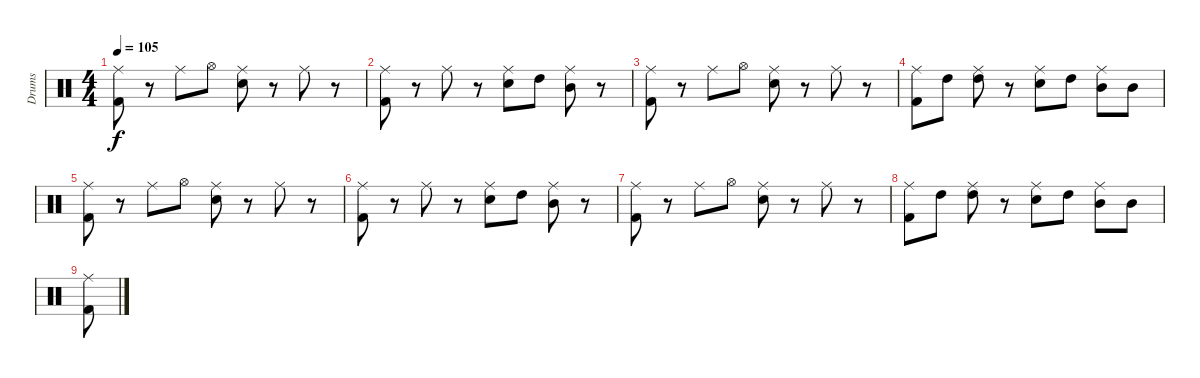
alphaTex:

\track ("Drums" "Drums") {instrument percussion}
\staff {score}
\articulation defaults
\ts (4 4)
\tempo 105
\clef neutral
\ks c
("Ride (middle)" "Kick (hit) 2").8{dy f} r.8 "Ride (middle)".8 "Hi-Hat (open)".8 ("Ride (middle)" "Snare (hit) 2").8 r.8 "Ride (middle)".8 r.8 |
("Ride (middle)" "Kick (hit) 2").8 r.8 "Ride (middle)".8 r.8 ("Ride (middle)" "Snare (hit) 2").8 "High Tom (hit)".8 ("Ride (middle)" "Mid Tom (hit)").8 r.8 |
("Ride (middle)" "Kick (hit) 2").8 r.8 "Ride (middle)".8 "Hi-Hat (open)".8 ("Ride (middle)" "Snare (hit) 2").8 r.8 "Ride (middle)".8 r.8 |
("Ride (middle)" "Kick (hit) 2").8 "High Tom (hit)".8 ("Ride (middle)" "High Tom (hit)").8 r.8 ("Ride (middle)" "Snare (hit) 2").8 "High Tom (hit)".8 ("Ride (middle)" "Mid Tom (hit)").8 "Mid Tom (hit)".8 |
("Ride (middle)" "Kick (hit) 2").8 r.8 "Ride (middle)".8 "Hi-Hat (open)".8 ("Ride (middle)" "Snare (hit) 2").8 r.8 "Ride (middle)".8 r.8 |
("Ride (middle)" "Kick (hit) 2").8 r.8 "Ride (middle)".8 r.8 ("Ride (middle)" "Snare (hit) 2").8 "High Tom (hit)".8 ("Ride (middle)" "Mid Tom (hit)").8 r.8 |
("Ride (middle)" "Kick (hit) 2").8 r.8 "Ride (middle)".8 "Hi-Hat (open)".8 ("Ride (middle)" "Snare (hit) 2").8 r.8 "Ride (middle)".8 r.8 |
("Ride (middle)" "Kick (hit) 2").8 "High Tom (hit)".8 ("Ride (middle)" "High Tom (hit)").8 r.8 ("Ride (middle)" "Snare (hit) 2").8 "High Tom (hit)".8 ("Ride (middle)" "Mid Tom (hit)").8 "Mid Tom (hit)".8 |
("Ride (middle)" "Kick (hit) 2").8
